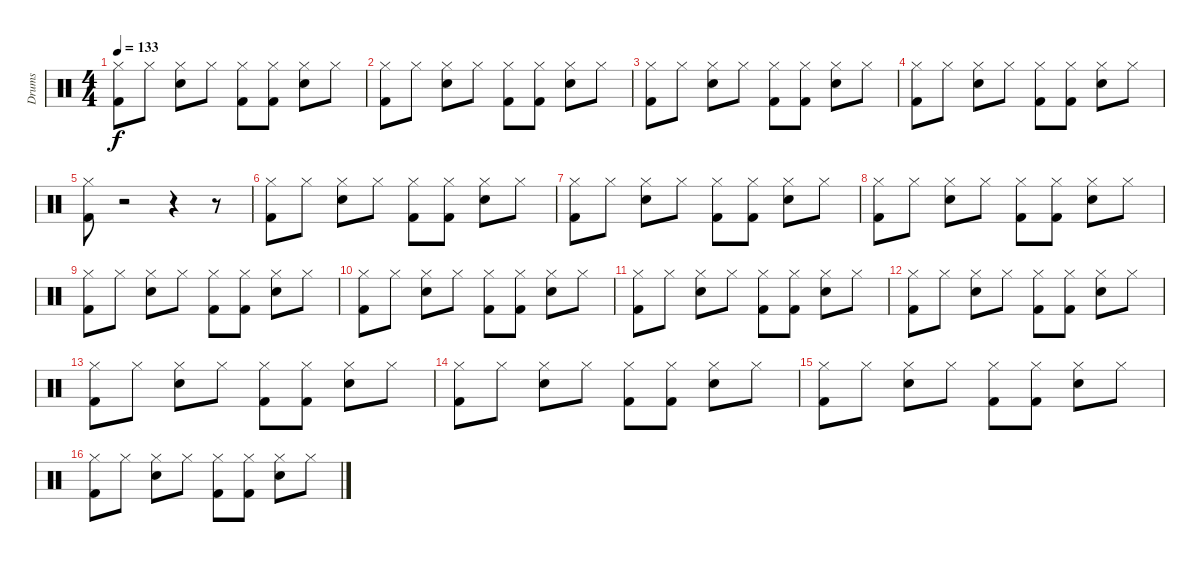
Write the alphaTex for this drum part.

\track ("Drums" "Drums") {instrument percussion}
\staff {score}
\articulation defaults
\ts (4 4)
\tempo 133
\clef neutral
\ks c
("Kick (hit) 2" "Hi-Hat (closed)").8{dy f} "Hi-Hat (closed)".8 ("Snare (hit) 2" "Hi-Hat (closed)").8 "Hi-Hat (closed)".8 ("Kick (hit) 2" "Hi-Hat (closed)").8 ("Kick (hit) 2" "Hi-Hat (closed)").8 ("Snare (hit) 2" "Hi-Hat (closed)").8 "Hi-Hat (closed)".8 |
("Kick (hit) 2" "Hi-Hat (closed)").8 "Hi-Hat (closed)".8 ("Snare (hit) 2" "Hi-Hat (closed)").8 "Hi-Hat (closed)".8 ("Kick (hit) 2" "Hi-Hat (closed)").8 ("Kick (hit) 2" "Hi-Hat (closed)").8 ("Snare (hit) 2" "Hi-Hat (closed)").8 "Hi-Hat (closed)".8 |
("Kick (hit) 2" "Hi-Hat (closed)").8 "Hi-Hat (closed)".8 ("Snare (hit) 2" "Hi-Hat (closed)").8 "Hi-Hat (closed)".8 ("Kick (hit) 2" "Hi-Hat (closed)").8 ("Kick (hit) 2" "Hi-Hat (closed)").8 ("Snare (hit) 2" "Hi-Hat (closed)").8 "Hi-Hat (closed)".8 |
("Kick (hit) 2" "Hi-Hat (closed)").8 "Hi-Hat (closed)".8 ("Snare (hit) 2" "Hi-Hat (closed)").8 "Hi-Hat (closed)".8 ("Kick (hit) 2" "Hi-Hat (closed)").8 ("Kick (hit) 2" "Hi-Hat (closed)").8 ("Snare (hit) 2" "Hi-Hat (closed)").8 "Hi-Hat (closed)".8 |
("Kick (hit) 2" "Hi-Hat (closed)").8 r.2 r.4 r.8 |
("Kick (hit) 2" "Hi-Hat (closed)").8 "Hi-Hat (closed)".8 ("Snare (hit) 2" "Hi-Hat (closed)").8 "Hi-Hat (closed)".8 ("Kick (hit) 2" "Hi-Hat (closed)").8 ("Kick (hit) 2" "Hi-Hat (closed)").8 ("Snare (hit) 2" "Hi-Hat (closed)").8 "Hi-Hat (closed)".8 |
("Kick (hit) 2" "Hi-Hat (closed)").8 "Hi-Hat (closed)".8 ("Snare (hit) 2" "Hi-Hat (closed)").8 "Hi-Hat (closed)".8 ("Kick (hit) 2" "Hi-Hat (closed)").8 ("Kick (hit) 2" "Hi-Hat (closed)").8 ("Snare (hit) 2" "Hi-Hat (closed)").8 "Hi-Hat (closed)".8 |
("Kick (hit) 2" "Hi-Hat (closed)").8 "Hi-Hat (closed)".8 ("Snare (hit) 2" "Hi-Hat (closed)").8 "Hi-Hat (closed)".8 ("Kick (hit) 2" "Hi-Hat (closed)").8 ("Kick (hit) 2" "Hi-Hat (closed)").8 ("Snare (hit) 2" "Hi-Hat (closed)").8 "Hi-Hat (closed)".8 |
("Kick (hit) 2" "Hi-Hat (closed)").8 "Hi-Hat (closed)".8 ("Snare (hit) 2" "Hi-Hat (closed)").8 "Hi-Hat (closed)".8 ("Kick (hit) 2" "Hi-Hat (closed)").8 ("Kick (hit) 2" "Hi-Hat (closed)").8 ("Snare (hit) 2" "Hi-Hat (closed)").8 "Hi-Hat (closed)".8 |
("Kick (hit) 2" "Hi-Hat (closed)").8 "Hi-Hat (closed)".8 ("Snare (hit) 2" "Hi-Hat (closed)").8 "Hi-Hat (closed)".8 ("Kick (hit) 2" "Hi-Hat (closed)").8 ("Kick (hit) 2" "Hi-Hat (closed)").8 ("Snare (hit) 2" "Hi-Hat (closed)").8 "Hi-Hat (closed)".8 |
("Kick (hit) 2" "Hi-Hat (closed)").8 "Hi-Hat (closed)".8 ("Snare (hit) 2" "Hi-Hat (closed)").8 "Hi-Hat (closed)".8 ("Kick (hit) 2" "Hi-Hat (closed)").8 ("Kick (hit) 2" "Hi-Hat (closed)").8 ("Snare (hit) 2" "Hi-Hat (closed)").8 "Hi-Hat (closed)".8 |
("Kick (hit) 2" "Hi-Hat (closed)").8 "Hi-Hat (closed)".8 ("Snare (hit) 2" "Hi-Hat (closed)").8 "Hi-Hat (closed)".8 ("Kick (hit) 2" "Hi-Hat (closed)").8 ("Kick (hit) 2" "Hi-Hat (closed)").8 ("Snare (hit) 2" "Hi-Hat (closed)").8 "Hi-Hat (closed)".8 |
("Kick (hit) 2" "Hi-Hat (closed)").8 "Hi-Hat (closed)".8 ("Snare (hit) 2" "Hi-Hat (closed)").8 "Hi-Hat (closed)".8 ("Kick (hit) 2" "Hi-Hat (closed)").8 ("Kick (hit) 2" "Hi-Hat (closed)").8 ("Snare (hit) 2" "Hi-Hat (closed)").8 "Hi-Hat (closed)".8 |
("Kick (hit) 2" "Hi-Hat (closed)").8 "Hi-Hat (closed)".8 ("Snare (hit) 2" "Hi-Hat (closed)").8 "Hi-Hat (closed)".8 ("Kick (hit) 2" "Hi-Hat (closed)").8 ("Kick (hit) 2" "Hi-Hat (closed)").8 ("Snare (hit) 2" "Hi-Hat (closed)").8 "Hi-Hat (closed)".8 |
("Kick (hit) 2" "Hi-Hat (closed)").8 "Hi-Hat (closed)".8 ("Snare (hit) 2" "Hi-Hat (closed)").8 "Hi-Hat (closed)".8 ("Kick (hit) 2" "Hi-Hat (closed)").8 ("Kick (hit) 2" "Hi-Hat (closed)").8 ("Snare (hit) 2" "Hi-Hat (closed)").8 "Hi-Hat (closed)".8 |
("Kick (hit) 2" "Hi-Hat (closed)").8 "Hi-Hat (closed)".8 ("Snare (hit) 2" "Hi-Hat (closed)").8 "Hi-Hat (closed)".8 ("Kick (hit) 2" "Hi-Hat (closed)").8 ("Kick (hit) 2" "Hi-Hat (closed)").8 ("Snare (hit) 2" "Hi-Hat (closed)").8 "Hi-Hat (closed)".8
